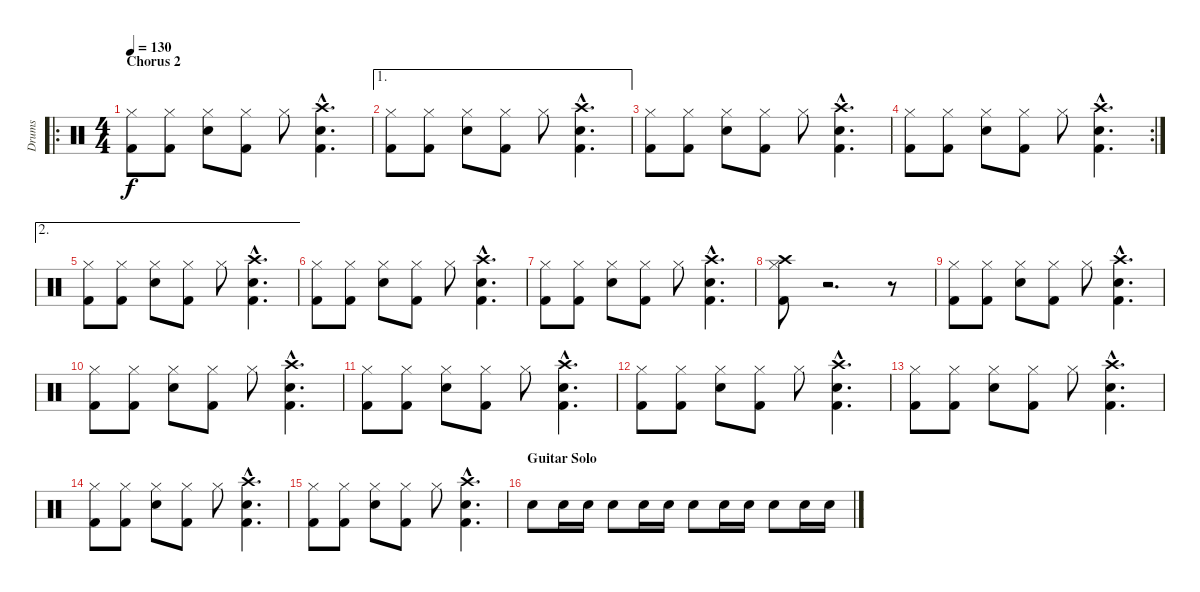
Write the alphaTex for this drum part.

\track ("Drums" "Drums") {instrument percussion}
\staff {score}
\articulation defaults
\ro
\ts (4 4)
\section ("" "Chorus 2")
\tempo 130
\clef neutral
\ks c
("Kick (hit) 2" "Hi-Hat (closed)").8{dy f} ("Kick (hit) 2" "Hi-Hat (closed)").8 ("Electric Snare (hit)" "Hi-Hat (closed)").8 ("Kick (hit) 2" "Hi-Hat (closed)").8 "Hi-Hat (closed)".8 ("Kick (hit) 2"{hac} "Electric Snare (hit)"{hac} "Crash high (hit)"{hac}).4{d} |
\ae 1
("Kick (hit) 2" "Hi-Hat (closed)").8 ("Kick (hit) 2" "Hi-Hat (closed)").8 ("Electric Snare (hit)" "Hi-Hat (closed)").8 ("Kick (hit) 2" "Hi-Hat (closed)").8 "Hi-Hat (closed)".8 ("Kick (hit) 2"{hac} "Electric Snare (hit)"{hac} "Crash high (hit)"{hac}).4{d} |
("Kick (hit) 2" "Hi-Hat (closed)").8 ("Kick (hit) 2" "Hi-Hat (closed)").8 ("Electric Snare (hit)" "Hi-Hat (closed)").8 ("Kick (hit) 2" "Hi-Hat (closed)").8 "Hi-Hat (closed)".8 ("Kick (hit) 2"{hac} "Electric Snare (hit)"{hac} "Crash high (hit)"{hac}).4{d} |
\rc 2
("Kick (hit) 2" "Hi-Hat (closed)").8 ("Kick (hit) 2" "Hi-Hat (closed)").8 ("Electric Snare (hit)" "Hi-Hat (closed)").8 ("Kick (hit) 2" "Hi-Hat (closed)").8 "Hi-Hat (closed)".8 ("Kick (hit) 2"{hac} "Electric Snare (hit)"{hac} "Crash high (hit)"{hac}).4{d} |
\ae 2
("Kick (hit) 2" "Hi-Hat (closed)").8 ("Kick (hit) 2" "Hi-Hat (closed)").8 ("Electric Snare (hit)" "Hi-Hat (closed)").8 ("Kick (hit) 2" "Hi-Hat (closed)").8 "Hi-Hat (closed)".8 ("Kick (hit) 2"{hac} "Electric Snare (hit)"{hac} "Crash high (hit)"{hac}).4{d} |
("Kick (hit) 2" "Hi-Hat (closed)").8 ("Kick (hit) 2" "Hi-Hat (closed)").8 ("Electric Snare (hit)" "Hi-Hat (closed)").8 ("Kick (hit) 2" "Hi-Hat (closed)").8 "Hi-Hat (closed)".8 ("Kick (hit) 2"{hac} "Electric Snare (hit)"{hac} "Crash high (hit)"{hac}).4{d} |
("Kick (hit) 2" "Hi-Hat (closed)").8 ("Kick (hit) 2" "Hi-Hat (closed)").8 ("Electric Snare (hit)" "Hi-Hat (closed)").8 ("Kick (hit) 2" "Hi-Hat (closed)").8 "Hi-Hat (closed)".8 ("Kick (hit) 2"{hac} "Electric Snare (hit)"{hac} "Crash high (hit)"{hac}).4{d} |
("Kick (hit) 2" "Hi-Hat (closed)" "Crash high (hit)").8 r.2{d} r.8 |
("Kick (hit) 2" "Hi-Hat (closed)").8 ("Kick (hit) 2" "Hi-Hat (closed)").8 ("Electric Snare (hit)" "Hi-Hat (closed)").8 ("Kick (hit) 2" "Hi-Hat (closed)").8 "Hi-Hat (closed)".8 ("Kick (hit) 2"{hac} "Electric Snare (hit)"{hac} "Crash high (hit)"{hac}).4{d} |
("Kick (hit) 2" "Hi-Hat (closed)").8 ("Kick (hit) 2" "Hi-Hat (closed)").8 ("Electric Snare (hit)" "Hi-Hat (closed)").8 ("Kick (hit) 2" "Hi-Hat (closed)").8 "Hi-Hat (closed)".8 ("Kick (hit) 2"{hac} "Electric Snare (hit)"{hac} "Crash high (hit)"{hac}).4{d} |
("Kick (hit) 2" "Hi-Hat (closed)").8 ("Kick (hit) 2" "Hi-Hat (closed)").8 ("Electric Snare (hit)" "Hi-Hat (closed)").8 ("Kick (hit) 2" "Hi-Hat (closed)").8 "Hi-Hat (closed)".8 ("Kick (hit) 2"{hac} "Electric Snare (hit)"{hac} "Crash high (hit)"{hac}).4{d} |
("Kick (hit) 2" "Hi-Hat (closed)").8 ("Kick (hit) 2" "Hi-Hat (closed)").8 ("Electric Snare (hit)" "Hi-Hat (closed)").8 ("Kick (hit) 2" "Hi-Hat (closed)").8 "Hi-Hat (closed)".8 ("Kick (hit) 2"{hac} "Electric Snare (hit)"{hac} "Crash high (hit)"{hac}).4{d} |
("Kick (hit) 2" "Hi-Hat (closed)").8 ("Kick (hit) 2" "Hi-Hat (closed)").8 ("Electric Snare (hit)" "Hi-Hat (closed)").8 ("Kick (hit) 2" "Hi-Hat (closed)").8 "Hi-Hat (closed)".8 ("Kick (hit) 2"{hac} "Electric Snare (hit)"{hac} "Crash high (hit)"{hac}).4{d} |
("Kick (hit) 2" "Hi-Hat (closed)").8 ("Kick (hit) 2" "Hi-Hat (closed)").8 ("Electric Snare (hit)" "Hi-Hat (closed)").8 ("Kick (hit) 2" "Hi-Hat (closed)").8 "Hi-Hat (closed)".8 ("Kick (hit) 2"{hac} "Electric Snare (hit)"{hac} "Crash high (hit)"{hac}).4{d} |
("Kick (hit) 2" "Hi-Hat (closed)").8 ("Kick (hit) 2" "Hi-Hat (closed)").8 ("Electric Snare (hit)" "Hi-Hat (closed)").8 ("Kick (hit) 2" "Hi-Hat (closed)").8 "Hi-Hat (closed)".8 ("Kick (hit) 2"{hac} "Electric Snare (hit)"{hac} "Crash high (hit)"{hac}).4{d} |
\section ("" "Guitar Solo")
"Electric Snare (hit)".8{volume 7} "Electric Snare (hit)".16 "Electric Snare (hit)".16 "Electric Snare (hit)".8 "Electric Snare (hit)".16 "Electric Snare (hit)".16 "Electric Snare (hit)".8 "Electric Snare (hit)".16 "Electric Snare (hit)".16 "Electric Snare (hit)".8 "Electric Snare (hit)".16 "Electric Snare (hit)".16
